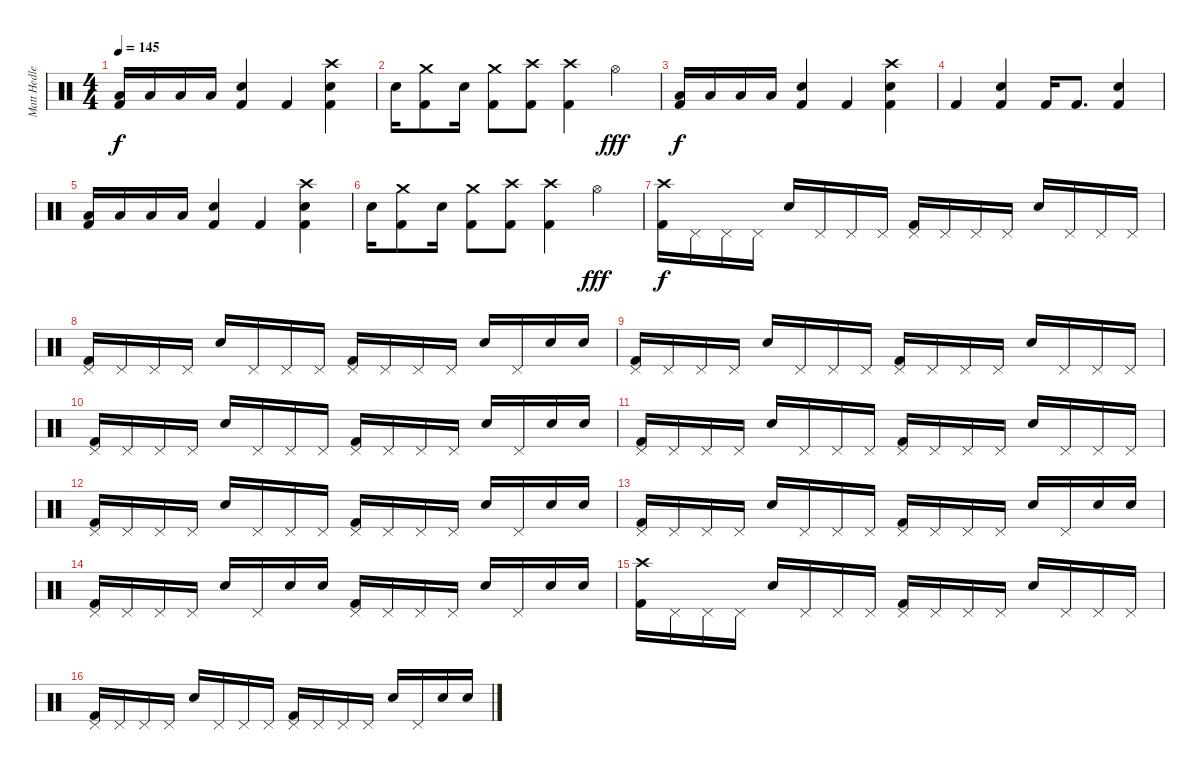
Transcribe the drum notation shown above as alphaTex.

\track ("Matt Hedlers" "Matt Hedle") {instrument percussion}
\staff {score}
\articulation defaults
\ts (4 4)
\tempo 145
\clef neutral
\ks c
("Low Tom (hit)" "Kick (hit) 2").16{dy f} "Low Tom (hit)".16 "Low Tom (hit)".16 "Low Tom (hit)".16 ("Snare (hit) 2" "Kick (hit) 2").4 "Kick (hit) 2".4 ("Crash high (hit)" "Snare (hit) 2" "Kick (hit) 2").4 |
"Snare (hit) 2".16 ("Crash medium (hit)" "Kick (hit) 2").8 "Snare (hit) 2".16 ("Crash medium (hit)" "Kick (hit) 2").8 ("Crash high (hit)" "Kick (hit) 2").8 ("Crash high (hit)" "Kick (hit) 2").4 "Hi-Hat (open)".4{dy fff} |
("Low Tom (hit)" "Kick (hit) 2").16{dy f} "Low Tom (hit)".16 "Low Tom (hit)".16 "Low Tom (hit)".16 ("Snare (hit) 2" "Kick (hit) 2").4 "Kick (hit) 2".4 ("Crash high (hit)" "Snare (hit) 2" "Kick (hit) 2").4 |
"Kick (hit) 2".4 ("Snare (hit) 2" "Kick (hit) 2").4 "Kick (hit) 2".16 "Kick (hit) 2".8{d} ("Snare (hit) 2" "Kick (hit) 2").4 |
("Low Tom (hit)" "Kick (hit) 2").16 "Low Tom (hit)".16 "Low Tom (hit)".16 "Low Tom (hit)".16 ("Snare (hit) 2" "Kick (hit) 2").4 "Kick (hit) 2".4 ("Crash high (hit)" "Snare (hit) 2" "Kick (hit) 2").4 |
"Snare (hit) 2".16 ("Crash medium (hit)" "Kick (hit) 2").8 "Snare (hit) 2".16 ("Crash medium (hit)" "Kick (hit) 2").8 ("Crash high (hit)" "Kick (hit) 2").8 ("Crash high (hit)" "Kick (hit) 2").4 "Hi-Hat (open)".4{dy fff} |
("Crash high (hit)" "Kick (hit) 2").16{dy f} "Pedal Hi-Hat (hit)".16 "Pedal Hi-Hat (hit)".16 "Pedal Hi-Hat (hit)".16 "Snare (hit) 2".16 "Pedal Hi-Hat (hit)".16 "Pedal Hi-Hat (hit)".16 "Pedal Hi-Hat (hit)".16 ("Pedal Hi-Hat (hit)" "Kick (hit) 2").16 "Pedal Hi-Hat (hit)".16 "Pedal Hi-Hat (hit)".16 "Pedal Hi-Hat (hit)".16 "Snare (hit) 2".16 "Pedal Hi-Hat (hit)".16 "Pedal Hi-Hat (hit)".16 "Pedal Hi-Hat (hit)".16 |
("Pedal Hi-Hat (hit)" "Kick (hit) 2").16 "Pedal Hi-Hat (hit)".16 "Pedal Hi-Hat (hit)".16 "Pedal Hi-Hat (hit)".16 "Snare (hit) 2".16 "Pedal Hi-Hat (hit)".16 "Pedal Hi-Hat (hit)".16 "Pedal Hi-Hat (hit)".16 ("Pedal Hi-Hat (hit)" "Kick (hit) 2").16 "Pedal Hi-Hat (hit)".16 "Pedal Hi-Hat (hit)".16 "Pedal Hi-Hat (hit)".16 "Snare (hit) 2".16 "Pedal Hi-Hat (hit)".16 "Snare (hit) 2".16 "Snare (hit) 2".16 |
("Pedal Hi-Hat (hit)" "Kick (hit) 2").16 "Pedal Hi-Hat (hit)".16 "Pedal Hi-Hat (hit)".16 "Pedal Hi-Hat (hit)".16 "Snare (hit) 2".16 "Pedal Hi-Hat (hit)".16 "Pedal Hi-Hat (hit)".16 "Pedal Hi-Hat (hit)".16 ("Pedal Hi-Hat (hit)" "Kick (hit) 2").16 "Pedal Hi-Hat (hit)".16 "Pedal Hi-Hat (hit)".16 "Pedal Hi-Hat (hit)".16 "Snare (hit) 2".16 "Pedal Hi-Hat (hit)".16 "Pedal Hi-Hat (hit)".16 "Pedal Hi-Hat (hit)".16 |
("Pedal Hi-Hat (hit)" "Kick (hit) 2").16 "Pedal Hi-Hat (hit)".16 "Pedal Hi-Hat (hit)".16 "Pedal Hi-Hat (hit)".16 "Snare (hit) 2".16 "Pedal Hi-Hat (hit)".16 "Pedal Hi-Hat (hit)".16 "Pedal Hi-Hat (hit)".16 ("Pedal Hi-Hat (hit)" "Kick (hit) 2").16 "Pedal Hi-Hat (hit)".16 "Pedal Hi-Hat (hit)".16 "Pedal Hi-Hat (hit)".16 "Snare (hit) 2".16 "Pedal Hi-Hat (hit)".16 "Snare (hit) 2".16 "Snare (hit) 2".16 |
("Pedal Hi-Hat (hit)" "Kick (hit) 2").16 "Pedal Hi-Hat (hit)".16 "Pedal Hi-Hat (hit)".16 "Pedal Hi-Hat (hit)".16 "Snare (hit) 2".16 "Pedal Hi-Hat (hit)".16 "Pedal Hi-Hat (hit)".16 "Pedal Hi-Hat (hit)".16 ("Pedal Hi-Hat (hit)" "Kick (hit) 2").16 "Pedal Hi-Hat (hit)".16 "Pedal Hi-Hat (hit)".16 "Pedal Hi-Hat (hit)".16 "Snare (hit) 2".16 "Pedal Hi-Hat (hit)".16 "Pedal Hi-Hat (hit)".16 "Pedal Hi-Hat (hit)".16 |
("Pedal Hi-Hat (hit)" "Kick (hit) 2").16 "Pedal Hi-Hat (hit)".16 "Pedal Hi-Hat (hit)".16 "Pedal Hi-Hat (hit)".16 "Snare (hit) 2".16 "Pedal Hi-Hat (hit)".16 "Pedal Hi-Hat (hit)".16 "Pedal Hi-Hat (hit)".16 ("Pedal Hi-Hat (hit)" "Kick (hit) 2").16 "Pedal Hi-Hat (hit)".16 "Pedal Hi-Hat (hit)".16 "Pedal Hi-Hat (hit)".16 "Snare (hit) 2".16 "Pedal Hi-Hat (hit)".16 "Snare (hit) 2".16 "Snare (hit) 2".16 |
("Pedal Hi-Hat (hit)" "Kick (hit) 2").16 "Pedal Hi-Hat (hit)".16 "Pedal Hi-Hat (hit)".16 "Pedal Hi-Hat (hit)".16 "Snare (hit) 2".16 "Pedal Hi-Hat (hit)".16 "Pedal Hi-Hat (hit)".16 "Pedal Hi-Hat (hit)".16 ("Pedal Hi-Hat (hit)" "Kick (hit) 2").16 "Pedal Hi-Hat (hit)".16 "Pedal Hi-Hat (hit)".16 "Pedal Hi-Hat (hit)".16 "Snare (hit) 2".16 "Pedal Hi-Hat (hit)".16 "Snare (hit) 2".16 "Snare (hit) 2".16 |
("Pedal Hi-Hat (hit)" "Kick (hit) 2").16 "Pedal Hi-Hat (hit)".16 "Pedal Hi-Hat (hit)".16 "Pedal Hi-Hat (hit)".16 "Snare (hit) 2".16 "Pedal Hi-Hat (hit)".16 "Snare (hit) 2".16 "Snare (hit) 2".16 ("Pedal Hi-Hat (hit)" "Kick (hit) 2").16 "Pedal Hi-Hat (hit)".16 "Pedal Hi-Hat (hit)".16 "Pedal Hi-Hat (hit)".16 "Snare (hit) 2".16 "Pedal Hi-Hat (hit)".16 "Snare (hit) 2".16 "Snare (hit) 2".16 |
("Crash high (hit)" "Kick (hit) 2").16 "Pedal Hi-Hat (hit)".16 "Pedal Hi-Hat (hit)".16 "Pedal Hi-Hat (hit)".16 "Snare (hit) 2".16 "Pedal Hi-Hat (hit)".16 "Pedal Hi-Hat (hit)".16 "Pedal Hi-Hat (hit)".16 ("Pedal Hi-Hat (hit)" "Kick (hit) 2").16 "Pedal Hi-Hat (hit)".16 "Pedal Hi-Hat (hit)".16 "Pedal Hi-Hat (hit)".16 "Snare (hit) 2".16 "Pedal Hi-Hat (hit)".16 "Pedal Hi-Hat (hit)".16 "Pedal Hi-Hat (hit)".16 |
("Pedal Hi-Hat (hit)" "Kick (hit) 2").16 "Pedal Hi-Hat (hit)".16 "Pedal Hi-Hat (hit)".16 "Pedal Hi-Hat (hit)".16 "Snare (hit) 2".16 "Pedal Hi-Hat (hit)".16 "Pedal Hi-Hat (hit)".16 "Pedal Hi-Hat (hit)".16 ("Pedal Hi-Hat (hit)" "Kick (hit) 2").16 "Pedal Hi-Hat (hit)".16 "Pedal Hi-Hat (hit)".16 "Pedal Hi-Hat (hit)".16 "Snare (hit) 2".16 "Pedal Hi-Hat (hit)".16 "Snare (hit) 2".16 "Snare (hit) 2".16
